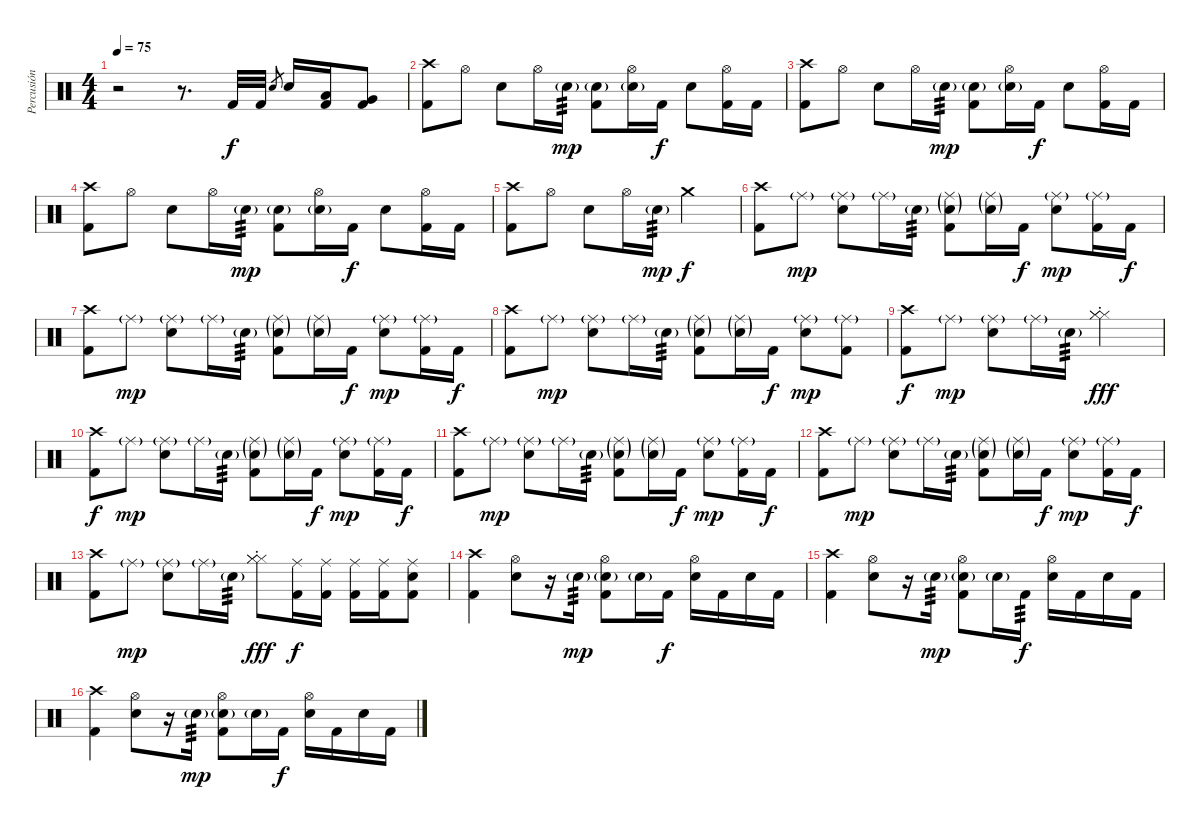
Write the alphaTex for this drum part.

\track ("Percusión" "Percusión") {instrument percussion}
\staff {score}
\articulation defaults
\ts (4 4)
\tempo 75
\clef neutral
\ks c
r.2{dy f} r.8{d} "Kick (hit) 2".32 "Kick (hit) 2".32 "Electric Snare (hit)".8{gr} "Electric Snare (hit)".16 ("Low Tom (hit)" "Kick (hit) 2").16 ("Very Low Tom (hit)" "Kick (hit) 2").8 |
("Crash high (hit)" "Kick (hit) 2").8 "Hi-Hat (open)".8 "Electric Snare (hit)".8 "Hi-Hat (open)".16 "Electric Snare (hit)"{g}.16{tp 3 dy mp} ("Electric Snare (hit)"{g} "Kick (hit) 2").8 ("Hi-Hat (open)" "Electric Snare (hit)"{g}).16 "Kick (hit) 2".16{dy f} "Electric Snare (hit)".8 ("Hi-Hat (open)" "Kick (hit) 2").16 "Kick (hit) 2".16 |
("Crash high (hit)" "Kick (hit) 2").8 "Hi-Hat (open)".8 "Electric Snare (hit)".8 "Hi-Hat (open)".16 "Electric Snare (hit)"{g}.16{tp 3 dy mp} ("Electric Snare (hit)"{g} "Kick (hit) 2").8 ("Hi-Hat (open)" "Electric Snare (hit)"{g}).16 "Kick (hit) 2".16{dy f} "Electric Snare (hit)".8 ("Hi-Hat (open)" "Kick (hit) 2").16 "Kick (hit) 2".16 |
("Crash high (hit)" "Kick (hit) 2").8 "Hi-Hat (open)".8 "Electric Snare (hit)".8 "Hi-Hat (open)".16 "Electric Snare (hit)"{g}.16{tp 3 dy mp} ("Electric Snare (hit)"{g} "Kick (hit) 2").8 ("Hi-Hat (open)" "Electric Snare (hit)"{g}).16 "Kick (hit) 2".16{dy f} "Electric Snare (hit)".8 ("Hi-Hat (open)" "Kick (hit) 2").16 "Kick (hit) 2".16 |
("Crash high (hit)" "Kick (hit) 2").8 "Hi-Hat (open)".8 "Electric Snare (hit)".8 "Hi-Hat (open)".16 "Electric Snare (hit)"{g}.16{tp 3 dy mp} "Crash medium (hit)".2{dy f} |
("Crash high (hit)" "Kick (hit) 2").8 "Ride (middle)"{g}.8{dy mp} ("Ride (middle)"{g} "Electric Snare (hit)").8 "Ride (middle)"{g}.16 "Electric Snare (hit)"{g}.16{tp 3} ("Ride (middle)"{g} "Electric Snare (hit)"{g} "Kick (hit) 2").8 ("Ride (middle)"{g} "Electric Snare (hit)"{g}).16 "Kick (hit) 2".16{dy f} ("Ride (middle)"{g} "Electric Snare (hit)").8{dy mp} ("Ride (middle)"{g} "Kick (hit) 2").16 "Kick (hit) 2".16{dy f} |
("Crash high (hit)" "Kick (hit) 2").8 "Ride (middle)"{g}.8{dy mp} ("Ride (middle)"{g} "Electric Snare (hit)").8 "Ride (middle)"{g}.16 "Electric Snare (hit)"{g}.16{tp 3} ("Ride (middle)"{g} "Electric Snare (hit)"{g} "Kick (hit) 2").8 ("Ride (middle)"{g} "Electric Snare (hit)"{g}).16 "Kick (hit) 2".16{dy f} ("Ride (middle)"{g} "Electric Snare (hit)").8{dy mp} ("Ride (middle)"{g} "Kick (hit) 2").16 "Kick (hit) 2".16{dy f} |
("Crash high (hit)" "Kick (hit) 2").8 "Ride (middle)"{g}.8{dy mp} ("Ride (middle)"{g} "Electric Snare (hit)").8 "Ride (middle)"{g}.16 "Electric Snare (hit)"{g}.16{tp 3} ("Ride (middle)"{g} "Electric Snare (hit)"{g} "Kick (hit) 2").8 ("Ride (middle)"{g} "Electric Snare (hit)"{g}).16 "Kick (hit) 2".16{dy f} ("Ride (middle)"{g} "Electric Snare (hit)").8{dy mp} ("Ride (middle)"{g} "Kick (hit) 2").8 |
("Crash high (hit)" "Kick (hit) 2").8{dy f} "Ride (middle)"{g}.8{dy mp} ("Ride (middle)"{g} "Electric Snare (hit)").8 "Ride (middle)"{g}.16 "Electric Snare (hit)"{g}.16{tp 3} ("Hi-Hat (closed)" "Hi-Hat (closed)"{st} "Hi-Hat (closed)").2{dy fff} |
("Crash high (hit)" "Kick (hit) 2").8{dy f} "Ride (middle)"{g}.8{dy mp} ("Ride (middle)"{g} "Electric Snare (hit)").8 "Ride (middle)"{g}.16 "Electric Snare (hit)"{g}.16{tp 3} ("Ride (middle)"{g} "Electric Snare (hit)"{g} "Kick (hit) 2").8 ("Ride (middle)"{g} "Electric Snare (hit)"{g}).16 "Kick (hit) 2".16{dy f} ("Ride (middle)"{g} "Electric Snare (hit)").8{dy mp} ("Ride (middle)"{g} "Kick (hit) 2").16 "Kick (hit) 2".16{dy f} |
("Crash high (hit)" "Kick (hit) 2").8 "Ride (middle)"{g}.8{dy mp} ("Ride (middle)"{g} "Electric Snare (hit)").8 "Ride (middle)"{g}.16 "Electric Snare (hit)"{g}.16{tp 3} ("Ride (middle)"{g} "Electric Snare (hit)"{g} "Kick (hit) 2").8 ("Ride (middle)"{g} "Electric Snare (hit)"{g}).16 "Kick (hit) 2".16{dy f} ("Ride (middle)"{g} "Electric Snare (hit)").8{dy mp} ("Ride (middle)"{g} "Kick (hit) 2").16 "Kick (hit) 2".16{dy f} |
("Crash high (hit)" "Kick (hit) 2").8 "Ride (middle)"{g}.8{dy mp} ("Ride (middle)"{g} "Electric Snare (hit)").8 "Ride (middle)"{g}.16 "Electric Snare (hit)"{g}.16{tp 3} ("Ride (middle)"{g} "Electric Snare (hit)"{g} "Kick (hit) 2").8 ("Ride (middle)"{g} "Electric Snare (hit)"{g}).16 "Kick (hit) 2".16{dy f} ("Ride (middle)"{g} "Electric Snare (hit)").8{dy mp} ("Ride (middle)"{g} "Kick (hit) 2").16 "Kick (hit) 2".16{dy f} |
("Crash high (hit)" "Kick (hit) 2").8 "Ride (middle)"{g}.8{dy mp} ("Ride (middle)"{g} "Electric Snare (hit)").8 "Ride (middle)"{g}.16 "Electric Snare (hit)"{g}.16{tp 3} ("Hi-Hat (closed)" "Hi-Hat (closed)"{st} "Hi-Hat (closed)").8{dy fff} ("Ride (middle)" "Kick (hit) 2").16{dy f} ("Ride (middle)" "Kick (hit) 2").16 ("Ride (middle)" "Kick (hit) 2").16 ("Ride (middle)" "Kick (hit) 2").16 ("Ride (middle)" "Electric Snare (hit)" "Kick (hit) 2").8 |
("Crash high (hit)" "Kick (hit) 2").4 ("Hi-Hat (open)" "Electric Snare (hit)").8 r.16 "Electric Snare (hit)"{g}.16{tp 3 dy mp} ("Hi-Hat (open)" "Electric Snare (hit)"{g} "Kick (hit) 2").8 "Electric Snare (hit)"{g}.16 "Kick (hit) 2".16{dy f} ("Hi-Hat (open)" "Electric Snare (hit)").16 "Kick (hit) 2".16 "Electric Snare (hit)".16 "Kick (hit) 2".16 |
("Crash high (hit)" "Kick (hit) 2").4 ("Hi-Hat (open)" "Electric Snare (hit)").8 r.16 "Electric Snare (hit)"{g}.16{tp 3 dy mp} ("Hi-Hat (open)" "Electric Snare (hit)"{g} "Kick (hit) 2").8 "Electric Snare (hit)"{g}.16 "Kick (hit) 2".16{tp 3 dy f} ("Hi-Hat (open)" "Electric Snare (hit)").16 "Kick (hit) 2".16 "Electric Snare (hit)".16 "Kick (hit) 2".16 |
("Crash high (hit)" "Kick (hit) 2").4 ("Hi-Hat (open)" "Electric Snare (hit)").8 r.16 "Electric Snare (hit)"{g}.16{tp 3 dy mp} ("Hi-Hat (open)" "Electric Snare (hit)"{g} "Kick (hit) 2").8 "Electric Snare (hit)"{g}.16 "Kick (hit) 2".16{dy f} ("Hi-Hat (open)" "Electric Snare (hit)").16 "Kick (hit) 2".16 "Electric Snare (hit)".16 "Kick (hit) 2".16
